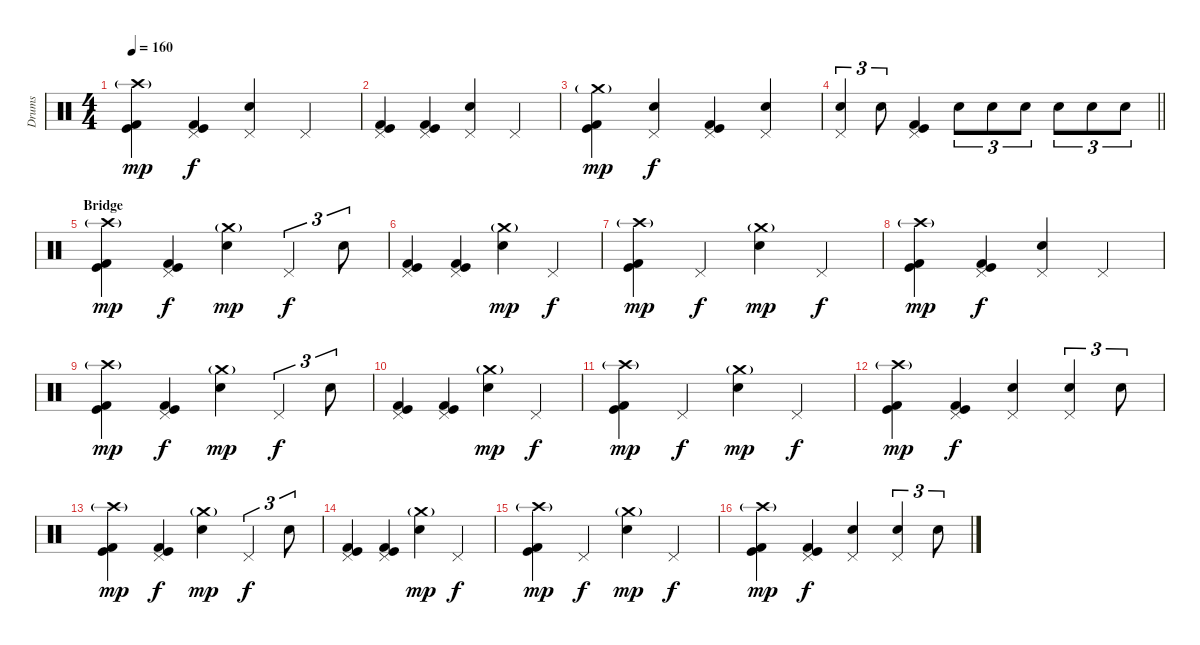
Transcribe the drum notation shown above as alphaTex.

\track ("Drums" "Drums") {instrument percussion}
\staff {score}
\articulation defaults
\ts (4 4)
\section ("" "")
\tempo 160
\clef neutral
\ks c
("Crash high (hit)"{g} "Kick (hit)" "Kick (hit) 2").4{dy mp} ("Pedal Hi-Hat (hit)" "Kick (hit)" "Kick (hit) 2").4{dy f} ("Pedal Hi-Hat (hit)" "Electric Snare (hit)").4 "Pedal Hi-Hat (hit)".4 |
("Pedal Hi-Hat (hit)" "Kick (hit)" "Kick (hit) 2").4 ("Pedal Hi-Hat (hit)" "Kick (hit)" "Kick (hit) 2").4 ("Pedal Hi-Hat (hit)" "Electric Snare (hit)").4 "Pedal Hi-Hat (hit)".4 |
("Crash medium (hit)"{g} "Kick (hit)" "Kick (hit) 2").4{dy mp} ("Pedal Hi-Hat (hit)" "Electric Snare (hit)").4{dy f} ("Pedal Hi-Hat (hit)" "Kick (hit)" "Kick (hit) 2").4 ("Pedal Hi-Hat (hit)" "Electric Snare (hit)").4 |
\barLineRight lightlight
("Pedal Hi-Hat (hit)" "Electric Snare (hit)").4{tu (3 2)} "Electric Snare (hit)".8{tu (3 2)} ("Pedal Hi-Hat (hit)" "Kick (hit)" "Kick (hit) 2").4 "Electric Snare (hit)".8{tu (3 2)} "Electric Snare (hit)".8{tu (3 2)} "Electric Snare (hit)".8{tu (3 2)} "Electric Snare (hit)".8{tu (3 2)} "Electric Snare (hit)".8{tu (3 2)} "Electric Snare (hit)".8{tu (3 2)} |
\section ("" "Bridge")
("Crash high (hit)"{g} "Kick (hit)" "Kick (hit) 2").4{dy mp} ("Pedal Hi-Hat (hit)" "Kick (hit)" "Kick (hit) 2").4{dy f} ("Crash medium (hit)"{g} "Electric Snare (hit)").4{dy mp} "Pedal Hi-Hat (hit)".4{tu (3 2) dy f} "Electric Snare (hit)".8{tu (3 2)} |
("Pedal Hi-Hat (hit)" "Kick (hit)" "Kick (hit) 2").4 ("Pedal Hi-Hat (hit)" "Kick (hit)" "Kick (hit) 2").4 ("Crash medium (hit)"{g} "Electric Snare (hit)").4{dy mp} "Pedal Hi-Hat (hit)".4{dy f} |
("Crash high (hit)"{g} "Kick (hit)" "Kick (hit) 2").4{dy mp} "Pedal Hi-Hat (hit)".4{dy f} ("Crash medium (hit)"{g} "Electric Snare (hit)").4{dy mp} "Pedal Hi-Hat (hit)".4{dy f} |
("Crash high (hit)"{g} "Kick (hit)" "Kick (hit) 2").4{dy mp} ("Pedal Hi-Hat (hit)" "Kick (hit)" "Kick (hit) 2").4{dy f} ("Pedal Hi-Hat (hit)" "Electric Snare (hit)").4 "Pedal Hi-Hat (hit)".4 |
("Crash high (hit)"{g} "Kick (hit)" "Kick (hit) 2").4{dy mp} ("Pedal Hi-Hat (hit)" "Kick (hit)" "Kick (hit) 2").4{dy f} ("Crash medium (hit)"{g} "Electric Snare (hit)").4{dy mp} "Pedal Hi-Hat (hit)".4{tu (3 2) dy f} "Electric Snare (hit)".8{tu (3 2)} |
("Pedal Hi-Hat (hit)" "Kick (hit)" "Kick (hit) 2").4 ("Pedal Hi-Hat (hit)" "Kick (hit)" "Kick (hit) 2").4 ("Crash medium (hit)"{g} "Electric Snare (hit)").4{dy mp} "Pedal Hi-Hat (hit)".4{dy f} |
("Crash high (hit)"{g} "Kick (hit)" "Kick (hit) 2").4{dy mp} "Pedal Hi-Hat (hit)".4{dy f} ("Crash medium (hit)"{g} "Electric Snare (hit)").4{dy mp} "Pedal Hi-Hat (hit)".4{dy f} |
("Crash high (hit)"{g} "Kick (hit)" "Kick (hit) 2").4{dy mp} ("Pedal Hi-Hat (hit)" "Kick (hit)" "Kick (hit) 2").4{dy f} ("Pedal Hi-Hat (hit)" "Electric Snare (hit)").4 ("Pedal Hi-Hat (hit)" "Electric Snare (hit)").4{tu (3 2)} "Electric Snare (hit)".8{tu (3 2)} |
("Crash high (hit)"{g} "Kick (hit)" "Kick (hit) 2").4{dy mp} ("Pedal Hi-Hat (hit)" "Kick (hit)" "Kick (hit) 2").4{dy f} ("Crash medium (hit)"{g} "Electric Snare (hit)").4{dy mp} "Pedal Hi-Hat (hit)".4{tu (3 2) dy f} "Electric Snare (hit)".8{tu (3 2)} |
("Pedal Hi-Hat (hit)" "Kick (hit)" "Kick (hit) 2").4 ("Pedal Hi-Hat (hit)" "Kick (hit)" "Kick (hit) 2").4 ("Crash medium (hit)"{g} "Electric Snare (hit)").4{dy mp} "Pedal Hi-Hat (hit)".4{dy f} |
("Crash high (hit)"{g} "Kick (hit)" "Kick (hit) 2").4{dy mp} "Pedal Hi-Hat (hit)".4{dy f} ("Crash medium (hit)"{g} "Electric Snare (hit)").4{dy mp} "Pedal Hi-Hat (hit)".4{dy f} |
("Crash high (hit)"{g} "Kick (hit)" "Kick (hit) 2").4{dy mp} ("Pedal Hi-Hat (hit)" "Kick (hit)" "Kick (hit) 2").4{dy f} ("Pedal Hi-Hat (hit)" "Electric Snare (hit)").4 ("Pedal Hi-Hat (hit)" "Electric Snare (hit)").4{tu (3 2)} "Electric Snare (hit)".8{tu (3 2)}
